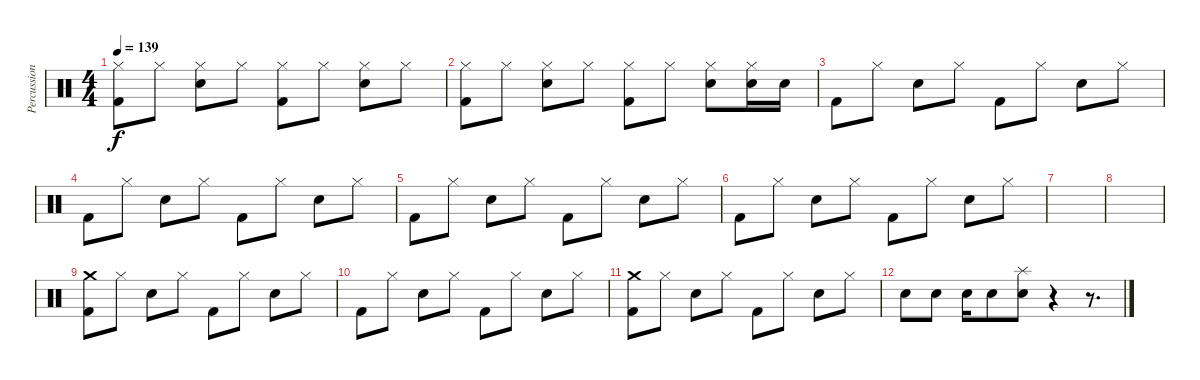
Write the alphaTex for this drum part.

\track ("Percussions" "Percussion") {instrument percussion}
\staff {score}
\articulation defaults
\ts (4 4)
\tempo 139
\clef neutral
\ks c
("Hi-Hat (closed)" "Kick (hit) 2").8{dy f} "Hi-Hat (closed)".8 ("Hi-Hat (closed)" "Snare (hit) 2").8 "Hi-Hat (closed)".8 ("Hi-Hat (closed)" "Kick (hit) 2").8 "Hi-Hat (closed)".8 ("Hi-Hat (closed)" "Snare (hit) 2").8 "Hi-Hat (closed)".8 |
("Hi-Hat (closed)" "Kick (hit) 2").8 "Hi-Hat (closed)".8 ("Hi-Hat (closed)" "Snare (hit) 2").8 "Hi-Hat (closed)".8 ("Hi-Hat (closed)" "Kick (hit) 2").8 "Hi-Hat (closed)".8 ("Hi-Hat (closed)" "Snare (hit) 2").8 ("Hi-Hat (closed)" "Snare (hit) 2").16 "Snare (hit) 2".16 |
"Kick (hit) 2".8 "Hi-Hat (closed)".8 "Snare (hit) 2".8 "Hi-Hat (closed)".8 "Kick (hit) 2".8 "Hi-Hat (closed)".8 "Snare (hit) 2".8 "Hi-Hat (closed)".8 |
"Kick (hit) 2".8 "Hi-Hat (closed)".8 "Snare (hit) 2".8 "Hi-Hat (closed)".8 "Kick (hit) 2".8 "Hi-Hat (closed)".8 "Snare (hit) 2".8 "Hi-Hat (closed)".8 |
"Kick (hit) 2".8 "Hi-Hat (closed)".8 "Snare (hit) 2".8 "Hi-Hat (closed)".8 "Kick (hit) 2".8 "Hi-Hat (closed)".8 "Snare (hit) 2".8 "Hi-Hat (closed)".8 |
"Kick (hit) 2".8 "Hi-Hat (closed)".8 "Snare (hit) 2".8 "Hi-Hat (closed)".8 "Kick (hit) 2".8 "Hi-Hat (closed)".8 "Snare (hit) 2".8 "Hi-Hat (closed)".8 |
|
|
("Crash medium (hit)" "Kick (hit) 2").8 "Hi-Hat (closed)".8 "Snare (hit) 2".8 "Hi-Hat (closed)".8 "Kick (hit) 2".8 "Hi-Hat (closed)".8 "Snare (hit) 2".8 "Hi-Hat (closed)".8 |
"Kick (hit) 2".8 "Hi-Hat (closed)".8 "Snare (hit) 2".8 "Hi-Hat (closed)".8 "Kick (hit) 2".8 "Hi-Hat (closed)".8 "Snare (hit) 2".8 "Hi-Hat (closed)".8 |
("Crash medium (hit)" "Kick (hit) 2").8 "Hi-Hat (closed)".8 "Snare (hit) 2".8 "Hi-Hat (closed)".8 "Kick (hit) 2".8 "Hi-Hat (closed)".8 "Snare (hit) 2".8 "Hi-Hat (closed)".8 |
"Snare (hit) 2".8 "Snare (hit) 2".8 "Snare (hit) 2".16 "Snare (hit) 2".8 ("Splash (hit)" "Snare (hit) 2").8 r.4 r.8{d}
